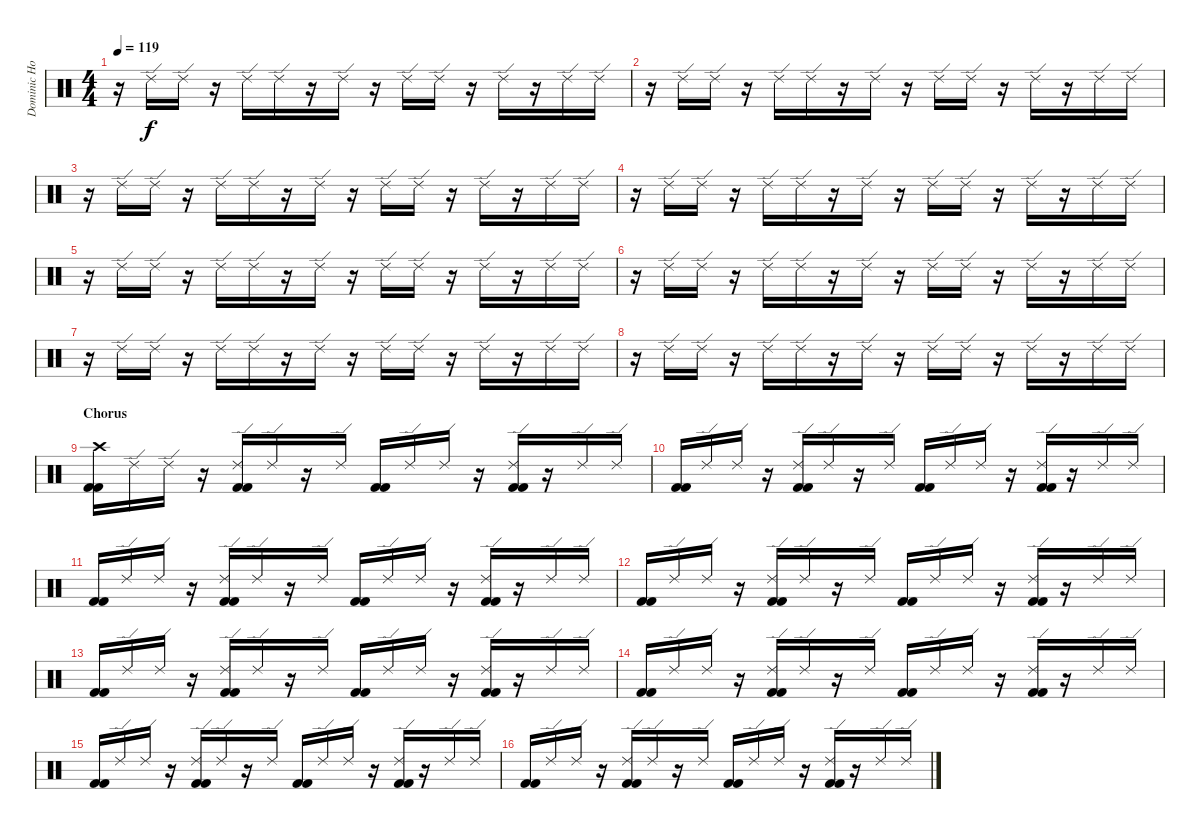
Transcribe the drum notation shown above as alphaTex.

\track ("Dominic Howard" "Dominic Ho") {instrument percussion}
\staff {score}
\articulation defaults
\ts (4 4)
\tempo 119
\clef neutral
\ks c
r.16{dy f} "Ride (edge) 2".16 "Ride (edge) 2".16 r.16 "Ride (edge) 2".16 "Ride (edge) 2".16 r.16 "Ride (edge) 2".16 r.16 "Ride (edge) 2".16 "Ride (edge) 2".16 r.16 "Ride (edge) 2".16 r.16 "Ride (edge) 2".16 "Ride (edge) 2".16 |
r.16 "Ride (edge) 2".16 "Ride (edge) 2".16 r.16 "Ride (edge) 2".16 "Ride (edge) 2".16 r.16 "Ride (edge) 2".16 r.16 "Ride (edge) 2".16 "Ride (edge) 2".16 r.16 "Ride (edge) 2".16 r.16 "Ride (edge) 2".16 "Ride (edge) 2".16 |
r.16 "Ride (edge) 2".16 "Ride (edge) 2".16 r.16 "Ride (edge) 2".16 "Ride (edge) 2".16 r.16 "Ride (edge) 2".16 r.16 "Ride (edge) 2".16 "Ride (edge) 2".16 r.16 "Ride (edge) 2".16 r.16 "Ride (edge) 2".16 "Ride (edge) 2".16 |
r.16 "Ride (edge) 2".16 "Ride (edge) 2".16 r.16 "Ride (edge) 2".16 "Ride (edge) 2".16 r.16 "Ride (edge) 2".16 r.16 "Ride (edge) 2".16 "Ride (edge) 2".16 r.16 "Ride (edge) 2".16 r.16 "Ride (edge) 2".16 "Ride (edge) 2".16 |
r.16 "Ride (edge) 2".16 "Ride (edge) 2".16 r.16 "Ride (edge) 2".16 "Ride (edge) 2".16 r.16 "Ride (edge) 2".16 r.16 "Ride (edge) 2".16 "Ride (edge) 2".16 r.16 "Ride (edge) 2".16 r.16 "Ride (edge) 2".16 "Ride (edge) 2".16 |
r.16 "Ride (edge) 2".16 "Ride (edge) 2".16 r.16 "Ride (edge) 2".16 "Ride (edge) 2".16 r.16 "Ride (edge) 2".16 r.16 "Ride (edge) 2".16 "Ride (edge) 2".16 r.16 "Ride (edge) 2".16 r.16 "Ride (edge) 2".16 "Ride (edge) 2".16 |
r.16 "Ride (edge) 2".16 "Ride (edge) 2".16 r.16 "Ride (edge) 2".16 "Ride (edge) 2".16 r.16 "Ride (edge) 2".16 r.16 "Ride (edge) 2".16 "Ride (edge) 2".16 r.16 "Ride (edge) 2".16 r.16 "Ride (edge) 2".16 "Ride (edge) 2".16 |
r.16 "Ride (edge) 2".16 "Ride (edge) 2".16 r.16 "Ride (edge) 2".16 "Ride (edge) 2".16 r.16 "Ride (edge) 2".16 r.16 "Ride (edge) 2".16 "Ride (edge) 2".16 r.16 "Ride (edge) 2".16 r.16 "Ride (edge) 2".16 "Ride (edge) 2".16 |
\section ("" "Chorus")
("Crash high (hit)" "Kick (hit) 2" "Kick (hit) 2").16 "Ride (edge) 2".16 "Ride (edge) 2".16 r.16 ("Ride (edge) 2" "Kick (hit) 2" "Kick (hit) 2").16 "Ride (edge) 2".16 r.16 "Ride (edge) 2".16 ("Kick (hit) 2" "Kick (hit) 2").16 "Ride (edge) 2".16 "Ride (edge) 2".16 r.16 ("Ride (edge) 2" "Kick (hit) 2" "Kick (hit) 2").16 r.16 "Ride (edge) 2".16 "Ride (edge) 2".16 |
("Kick (hit) 2" "Kick (hit) 2").16 "Ride (edge) 2".16 "Ride (edge) 2".16 r.16 ("Ride (edge) 2" "Kick (hit) 2" "Kick (hit) 2").16 "Ride (edge) 2".16 r.16 "Ride (edge) 2".16 ("Kick (hit) 2" "Kick (hit) 2").16 "Ride (edge) 2".16 "Ride (edge) 2".16 r.16 ("Ride (edge) 2" "Kick (hit) 2" "Kick (hit) 2").16 r.16 "Ride (edge) 2".16 "Ride (edge) 2".16 |
("Kick (hit) 2" "Kick (hit) 2").16 "Ride (edge) 2".16 "Ride (edge) 2".16 r.16 ("Ride (edge) 2" "Kick (hit) 2" "Kick (hit) 2").16 "Ride (edge) 2".16 r.16 "Ride (edge) 2".16 ("Kick (hit) 2" "Kick (hit) 2").16 "Ride (edge) 2".16 "Ride (edge) 2".16 r.16 ("Ride (edge) 2" "Kick (hit) 2" "Kick (hit) 2").16 r.16 "Ride (edge) 2".16 "Ride (edge) 2".16 |
("Kick (hit) 2" "Kick (hit) 2").16 "Ride (edge) 2".16 "Ride (edge) 2".16 r.16 ("Ride (edge) 2" "Kick (hit) 2" "Kick (hit) 2").16 "Ride (edge) 2".16 r.16 "Ride (edge) 2".16 ("Kick (hit) 2" "Kick (hit) 2").16 "Ride (edge) 2".16 "Ride (edge) 2".16 r.16 ("Ride (edge) 2" "Kick (hit) 2" "Kick (hit) 2").16 r.16 "Ride (edge) 2".16 "Ride (edge) 2".16 |
("Kick (hit) 2" "Kick (hit) 2").16 "Ride (edge) 2".16 "Ride (edge) 2".16 r.16 ("Ride (edge) 2" "Kick (hit) 2" "Kick (hit) 2").16 "Ride (edge) 2".16 r.16 "Ride (edge) 2".16 ("Kick (hit) 2" "Kick (hit) 2").16 "Ride (edge) 2".16 "Ride (edge) 2".16 r.16 ("Ride (edge) 2" "Kick (hit) 2" "Kick (hit) 2").16 r.16 "Ride (edge) 2".16 "Ride (edge) 2".16 |
("Kick (hit) 2" "Kick (hit) 2").16 "Ride (edge) 2".16 "Ride (edge) 2".16 r.16 ("Ride (edge) 2" "Kick (hit) 2" "Kick (hit) 2").16 "Ride (edge) 2".16 r.16 "Ride (edge) 2".16 ("Kick (hit) 2" "Kick (hit) 2").16 "Ride (edge) 2".16 "Ride (edge) 2".16 r.16 ("Ride (edge) 2" "Kick (hit) 2" "Kick (hit) 2").16 r.16 "Ride (edge) 2".16 "Ride (edge) 2".16 |
("Kick (hit) 2" "Kick (hit) 2").16 "Ride (edge) 2".16 "Ride (edge) 2".16 r.16 ("Ride (edge) 2" "Kick (hit) 2" "Kick (hit) 2").16 "Ride (edge) 2".16 r.16 "Ride (edge) 2".16 ("Kick (hit) 2" "Kick (hit) 2").16 "Ride (edge) 2".16 "Ride (edge) 2".16 r.16 ("Ride (edge) 2" "Kick (hit) 2" "Kick (hit) 2").16 r.16 "Ride (edge) 2".16 "Ride (edge) 2".16 |
("Kick (hit) 2" "Kick (hit) 2").16 "Ride (edge) 2".16 "Ride (edge) 2".16 r.16 ("Ride (edge) 2" "Kick (hit) 2" "Kick (hit) 2").16 "Ride (edge) 2".16 r.16 "Ride (edge) 2".16 ("Kick (hit) 2" "Kick (hit) 2").16 "Ride (edge) 2".16 "Ride (edge) 2".16 r.16 ("Ride (edge) 2" "Kick (hit) 2" "Kick (hit) 2").16 r.16 "Ride (edge) 2".16 "Ride (edge) 2".16
